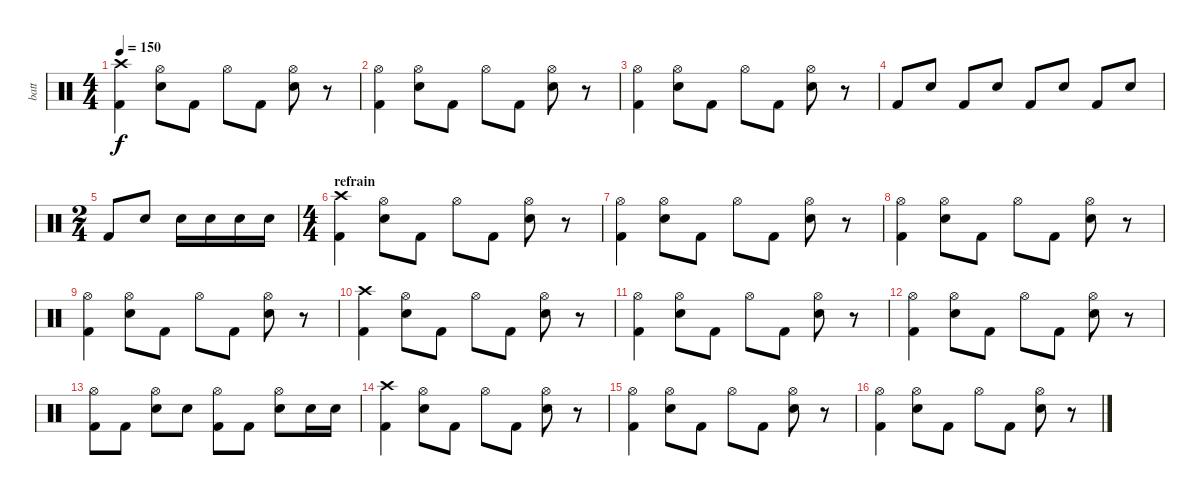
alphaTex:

\track ("batt" "batt") {instrument percussion}
\staff {score}
\articulation defaults
\ts (4 4)
\tempo 150
\clef neutral
\ks c
("Crash high (hit)" "Kick (hit) 2").4{dy f} ("Hi-Hat (open)" "Electric Snare (hit)").8 "Kick (hit) 2".8 "Hi-Hat (open)".8 "Kick (hit) 2".8 ("Hi-Hat (open)" "Electric Snare (hit)").8 r.8 |
("Hi-Hat (open)" "Kick (hit) 2").4 ("Hi-Hat (open)" "Electric Snare (hit)").8 "Kick (hit) 2".8 "Hi-Hat (open)".8 "Kick (hit) 2".8 ("Hi-Hat (open)" "Electric Snare (hit)").8 r.8 |
("Hi-Hat (open)" "Kick (hit) 2").4 ("Hi-Hat (open)" "Electric Snare (hit)").8 "Kick (hit) 2".8 "Hi-Hat (open)".8 "Kick (hit) 2".8 ("Hi-Hat (open)" "Electric Snare (hit)").8 r.8 |
"Kick (hit) 2".8 "Electric Snare (hit)".8 "Kick (hit) 2".8 "Electric Snare (hit)".8 "Kick (hit) 2".8 "Electric Snare (hit)".8 "Kick (hit) 2".8 "Electric Snare (hit)".8 |
\ts (2 4)
"Kick (hit) 2".8 "Electric Snare (hit)".8 "Electric Snare (hit)".16 "Electric Snare (hit)".16 "Electric Snare (hit)".16 "Electric Snare (hit)".16 |
\ts (4 4)
\section ("" "refrain")
("Crash high (hit)" "Kick (hit) 2").4 ("Hi-Hat (open)" "Electric Snare (hit)").8 "Kick (hit) 2".8 "Hi-Hat (open)".8 "Kick (hit) 2".8 ("Hi-Hat (open)" "Electric Snare (hit)").8 r.8 |
("Hi-Hat (open)" "Kick (hit) 2").4 ("Hi-Hat (open)" "Electric Snare (hit)").8 "Kick (hit) 2".8 "Hi-Hat (open)".8 "Kick (hit) 2".8 ("Hi-Hat (open)" "Electric Snare (hit)").8 r.8 |
("Hi-Hat (open)" "Kick (hit) 2").4 ("Hi-Hat (open)" "Electric Snare (hit)").8 "Kick (hit) 2".8 "Hi-Hat (open)".8 "Kick (hit) 2".8 ("Hi-Hat (open)" "Electric Snare (hit)").8 r.8 |
("Hi-Hat (open)" "Kick (hit) 2").4 ("Hi-Hat (open)" "Electric Snare (hit)").8 "Kick (hit) 2".8 "Hi-Hat (open)".8 "Kick (hit) 2".8 ("Hi-Hat (open)" "Electric Snare (hit)").8 r.8 |
("Crash high (hit)" "Kick (hit) 2").4 ("Hi-Hat (open)" "Electric Snare (hit)").8 "Kick (hit) 2".8 "Hi-Hat (open)".8 "Kick (hit) 2".8 ("Hi-Hat (open)" "Electric Snare (hit)").8 r.8 |
("Hi-Hat (open)" "Kick (hit) 2").4 ("Hi-Hat (open)" "Electric Snare (hit)").8 "Kick (hit) 2".8 "Hi-Hat (open)".8 "Kick (hit) 2".8 ("Hi-Hat (open)" "Electric Snare (hit)").8 r.8 |
("Hi-Hat (open)" "Kick (hit) 2").4 ("Hi-Hat (open)" "Electric Snare (hit)").8 "Kick (hit) 2".8 "Hi-Hat (open)".8 "Kick (hit) 2".8 ("Hi-Hat (open)" "Electric Snare (hit)").8 r.8 |
("Hi-Hat (open)" "Kick (hit) 2").8 "Kick (hit) 2".8 ("Hi-Hat (open)" "Electric Snare (hit)").8 "Electric Snare (hit)".8 ("Hi-Hat (open)" "Kick (hit) 2").8 "Kick (hit) 2".8 ("Hi-Hat (open)" "Electric Snare (hit)").8 "Electric Snare (hit)".16 "Electric Snare (hit)".16 |
("Crash high (hit)" "Kick (hit) 2").4 ("Hi-Hat (open)" "Electric Snare (hit)").8 "Kick (hit) 2".8 "Hi-Hat (open)".8 "Kick (hit) 2".8 ("Hi-Hat (open)" "Electric Snare (hit)").8 r.8 |
("Hi-Hat (open)" "Kick (hit) 2").4 ("Hi-Hat (open)" "Electric Snare (hit)").8 "Kick (hit) 2".8 "Hi-Hat (open)".8 "Kick (hit) 2".8 ("Hi-Hat (open)" "Electric Snare (hit)").8 r.8 |
("Hi-Hat (open)" "Kick (hit) 2").4 ("Hi-Hat (open)" "Electric Snare (hit)").8 "Kick (hit) 2".8 "Hi-Hat (open)".8 "Kick (hit) 2".8 ("Hi-Hat (open)" "Electric Snare (hit)").8 r.8
